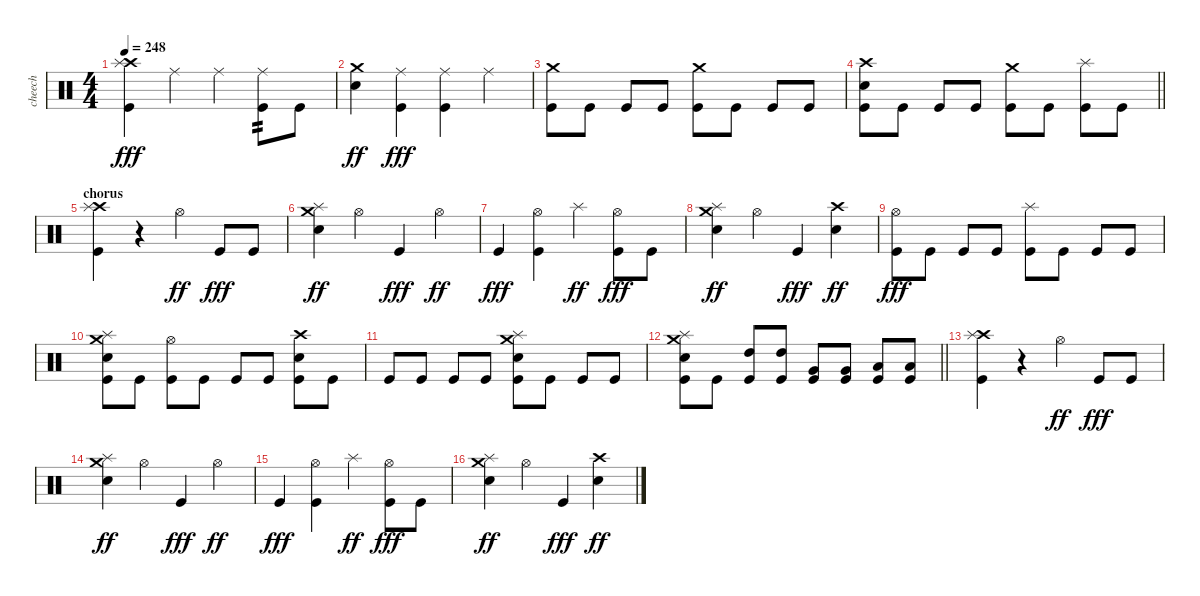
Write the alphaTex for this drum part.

\track ("cheech" "cheech") {instrument percussion}
\staff {score}
\articulation defaults
\ts (4 4)
\tempo 248
\clef neutral
\ks c
("Crash high (hit)" "Splash (hit)" "Kick (hit)").4{dy fff} "Ride (middle)".4 "Ride (middle)".4 ("Ride (middle)" "Kick (hit)").8{tp 2} "Kick (hit)".8 |
("Crash medium (hit)" "Electric Snare (hit)").4{dy ff} ("Ride (middle)" "Kick (hit)").4{dy fff} ("Ride (middle)" "Kick (hit)").4 "Ride (middle)".4 |
("Crash medium (hit)" "Kick (hit)").8 "Kick (hit)".8 "Kick (hit)".8 "Kick (hit)".8 ("Crash medium (hit)" "Kick (hit)").8 "Kick (hit)".8 "Kick (hit)".8 "Kick (hit)".8 |
\barLineRight lightlight
("Crash high (hit)" "Electric Snare (hit)" "Kick (hit)").8 "Kick (hit)".8 "Kick (hit)".8 "Kick (hit)".8 ("Crash medium (hit)" "Kick (hit)").8 "Kick (hit)".8 ("Splash (hit)" "Kick (hit)").8 "Kick (hit)".8 |
\section ("" "chorus")
("Crash high (hit)" "Splash (hit)" "Kick (hit)").4 r.4 "Hi-Hat (open)".4{dy ff} "Kick (hit)".8{dy fff} "Kick (hit)".8 |
("Crash medium (hit)" "Splash (hit)" "Electric Snare (hit)").4{dy ff} "Hi-Hat (open)".4 "Kick (hit)".4{dy fff} "Hi-Hat (open)".4{dy ff} |
"Kick (hit)".4{dy fff} ("Hi-Hat (open)" "Kick (hit)").4 "Splash (hit)".4{dy ff} ("Hi-Hat (open)" "Kick (hit)").8{dy fff} "Kick (hit)".8 |
("Crash medium (hit)" "Splash (hit)" "Electric Snare (hit)").4{dy ff} "Hi-Hat (open)".4 "Kick (hit)".4{dy fff} ("Crash high (hit)" "Electric Snare (hit)").4{dy ff} |
("Hi-Hat (open)" "Kick (hit)").8{dy fff} "Kick (hit)".8 "Kick (hit)".8 "Kick (hit)".8 ("Splash (hit)" "Kick (hit)").8 "Kick (hit)".8 "Kick (hit)".8 "Kick (hit)".8 |
("Crash medium (hit)" "Splash (hit)" "Electric Snare (hit)" "Kick (hit)").8 "Kick (hit)".8 ("Hi-Hat (open)" "Kick (hit)").8 "Kick (hit)".8 "Kick (hit)".8 "Kick (hit)".8 ("Crash high (hit)" "Electric Snare (hit)" "Kick (hit)").8 "Kick (hit)".8 |
"Kick (hit)".8 "Kick (hit)".8 "Kick (hit)".8 "Kick (hit)".8 ("Crash medium (hit)" "Splash (hit)" "Electric Snare (hit)" "Kick (hit)").8 "Kick (hit)".8 "Kick (hit)".8 "Kick (hit)".8 |
\barLineRight lightlight
("Crash medium (hit)" "Splash (hit)" "Electric Snare (hit)" "Kick (hit)").8 "Kick (hit)".8 ("High Tom (hit)" "Kick (hit)").8 ("High Tom (hit)" "Kick (hit)").8 ("Very Low Tom (hit)" "Kick (hit)").8 ("Very Low Tom (hit)" "Kick (hit)").8 ("Low Floor Tom (hit)" "Kick (hit)").8 ("Low Floor Tom (hit)" "Kick (hit)").8 |
("Crash high (hit)" "Splash (hit)" "Kick (hit)").4 r.4 "Hi-Hat (open)".4{dy ff} "Kick (hit)".8{dy fff} "Kick (hit)".8 |
("Crash medium (hit)" "Splash (hit)" "Electric Snare (hit)").4{dy ff} "Hi-Hat (open)".4 "Kick (hit)".4{dy fff} "Hi-Hat (open)".4{dy ff} |
"Kick (hit)".4{dy fff} ("Hi-Hat (open)" "Kick (hit)").4 "Splash (hit)".4{dy ff} ("Hi-Hat (open)" "Kick (hit)").8{dy fff} "Kick (hit)".8 |
("Crash medium (hit)" "Splash (hit)" "Electric Snare (hit)").4{dy ff} "Hi-Hat (open)".4 "Kick (hit)".4{dy fff} ("Crash high (hit)" "Electric Snare (hit)").4{dy ff}
